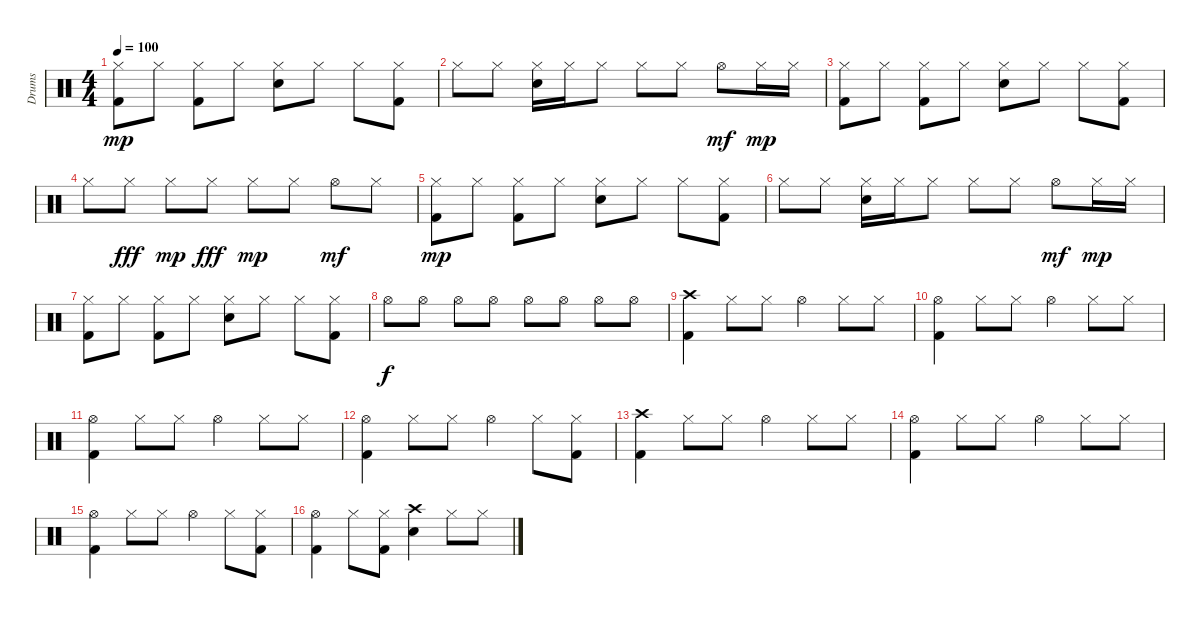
\track ("Drums" "Drums") {instrument percussion}
\staff {score}
\articulation defaults
\ts (4 4)
\tempo 100
\clef neutral
\ks c
("Kick (hit) 2" "Hi-Hat (closed)").8{dy mp balance 0} "Hi-Hat (closed)".8 ("Kick (hit) 2" "Hi-Hat (closed)").8 "Hi-Hat (closed)".8 ("Hi-Hat (closed)" "Electric Snare (hit)").8 "Hi-Hat (closed)".8 "Hi-Hat (closed)".8 ("Kick (hit) 2" "Hi-Hat (closed)").8 |
"Hi-Hat (closed)".8 "Hi-Hat (closed)".8 ("Hi-Hat (closed)" "Electric Snare (hit)").16 "Hi-Hat (closed)".16 "Hi-Hat (closed)".8 "Hi-Hat (closed)".8 "Hi-Hat (closed)".8 "Hi-Hat (open)".8{dy mf} "Hi-Hat (closed)".16{dy mp} "Hi-Hat (closed)".16 |
("Kick (hit) 2" "Hi-Hat (closed)").8{balance 16} "Hi-Hat (closed)".8 ("Kick (hit) 2" "Hi-Hat (closed)").8 "Hi-Hat (closed)".8 ("Hi-Hat (closed)" "Electric Snare (hit)").8 "Hi-Hat (closed)".8 "Hi-Hat (closed)".8 ("Kick (hit) 2" "Hi-Hat (closed)").8 |
"Hi-Hat (closed)".8 "Hi-Hat (closed)".8{dy fff} "Hi-Hat (closed)".8{dy mp} "Hi-Hat (closed)".8{dy fff} "Hi-Hat (closed)".8{dy mp} "Hi-Hat (closed)".8 "Hi-Hat (open)".8{dy mf} "Hi-Hat (closed)".8 |
("Kick (hit) 2" "Hi-Hat (closed)").8{dy mp balance 0} "Hi-Hat (closed)".8 ("Kick (hit) 2" "Hi-Hat (closed)").8 "Hi-Hat (closed)".8 ("Hi-Hat (closed)" "Electric Snare (hit)").8 "Hi-Hat (closed)".8 "Hi-Hat (closed)".8 ("Kick (hit) 2" "Hi-Hat (closed)").8 |
"Hi-Hat (closed)".8 "Hi-Hat (closed)".8 ("Hi-Hat (closed)" "Electric Snare (hit)").16 "Hi-Hat (closed)".16 "Hi-Hat (closed)".8 "Hi-Hat (closed)".8 "Hi-Hat (closed)".8 "Hi-Hat (open)".8{dy mf} "Hi-Hat (closed)".16{dy mp} "Hi-Hat (closed)".16 |
("Kick (hit) 2" "Hi-Hat (closed)").8{balance 0} "Hi-Hat (closed)".8 ("Kick (hit) 2" "Hi-Hat (closed)").8 "Hi-Hat (closed)".8 ("Hi-Hat (closed)" "Electric Snare (hit)").8 "Hi-Hat (closed)".8 "Hi-Hat (closed)".8 ("Kick (hit) 2" "Hi-Hat (closed)").8 |
"Hi-Hat (open)".8{dy f volume 4 balance 8} "Hi-Hat (open)".8 "Hi-Hat (open)".8{volume 13} "Hi-Hat (open)".8 "Hi-Hat (open)".8 "Hi-Hat (open)".8 "Hi-Hat (open)".8 "Hi-Hat (open)".8 |
("Kick (hit) 2" "Crash high (hit)").4 "Hi-Hat (closed)".8 "Hi-Hat (closed)".8 "Hi-Hat (open)".4 "Hi-Hat (closed)".8 "Hi-Hat (closed)".8 |
("Kick (hit) 2" "Hi-Hat (open)").4 "Hi-Hat (closed)".8 "Hi-Hat (closed)".8 "Hi-Hat (open)".4 "Hi-Hat (closed)".8 "Hi-Hat (closed)".8 |
("Kick (hit) 2" "Hi-Hat (open)").4 "Hi-Hat (closed)".8 "Hi-Hat (closed)".8 "Hi-Hat (open)".4 "Hi-Hat (closed)".8 "Hi-Hat (closed)".8 |
("Kick (hit) 2" "Hi-Hat (open)").4 "Hi-Hat (closed)".8 "Hi-Hat (closed)".8 "Hi-Hat (open)".4 "Hi-Hat (closed)".8 ("Kick (hit) 2" "Hi-Hat (closed)").8 |
("Kick (hit) 2" "Crash high (hit)").4 "Hi-Hat (closed)".8 "Hi-Hat (closed)".8 "Hi-Hat (open)".4 "Hi-Hat (closed)".8 "Hi-Hat (closed)".8 |
("Kick (hit) 2" "Hi-Hat (open)").4 "Hi-Hat (closed)".8 "Hi-Hat (closed)".8 "Hi-Hat (open)".4 "Hi-Hat (closed)".8 "Hi-Hat (closed)".8 |
("Kick (hit) 2" "Hi-Hat (open)").4 "Hi-Hat (closed)".8 "Hi-Hat (closed)".8 "Hi-Hat (open)".4 "Hi-Hat (closed)".8 ("Kick (hit) 2" "Hi-Hat (closed)").8 |
("Kick (hit) 2" "Hi-Hat (open)").4 "Hi-Hat (closed)".8 ("Kick (hit) 2" "Hi-Hat (closed)").8 ("Crash high (hit)" "Snare (hit) 2").4 "Hi-Hat (closed)".8 "Hi-Hat (closed)".8
